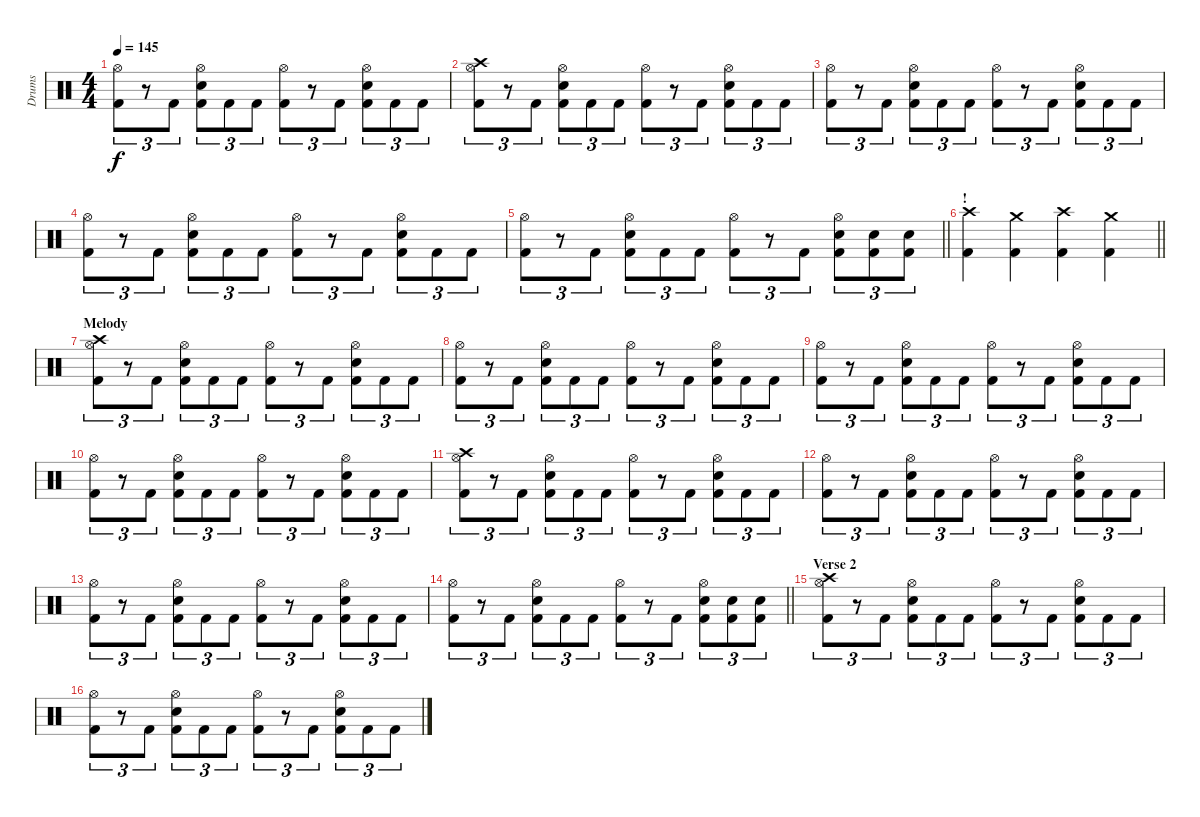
\track ("Drums" "Drums") {instrument percussion}
\staff {score}
\articulation defaults
\ts (4 4)
\tempo 145
\clef neutral
\ks c
("Hi-Hat (open)" "Kick (hit) 2").8{tu (3 2) dy f} r.8{tu (3 2)} "Kick (hit) 2".8{tu (3 2)} ("Hi-Hat (open)" "Snare (hit) 2" "Kick (hit) 2").8{tu (3 2)} "Kick (hit) 2".8{tu (3 2)} "Kick (hit) 2".8{tu (3 2)} ("Hi-Hat (open)" "Kick (hit) 2").8{tu (3 2)} r.8{tu (3 2)} "Kick (hit) 2".8{tu (3 2)} ("Hi-Hat (open)" "Snare (hit) 2" "Kick (hit) 2").8{tu (3 2)} "Kick (hit) 2".8{tu (3 2)} "Kick (hit) 2".8{tu (3 2)} |
("Crash high (hit)" "Hi-Hat (open)" "Kick (hit) 2").8{tu (3 2)} r.8{tu (3 2)} "Kick (hit) 2".8{tu (3 2)} ("Hi-Hat (open)" "Snare (hit) 2" "Kick (hit) 2").8{tu (3 2)} "Kick (hit) 2".8{tu (3 2)} "Kick (hit) 2".8{tu (3 2)} ("Hi-Hat (open)" "Kick (hit) 2").8{tu (3 2)} r.8{tu (3 2)} "Kick (hit) 2".8{tu (3 2)} ("Hi-Hat (open)" "Snare (hit) 2" "Kick (hit) 2").8{tu (3 2)} "Kick (hit) 2".8{tu (3 2)} "Kick (hit) 2".8{tu (3 2)} |
("Hi-Hat (open)" "Kick (hit) 2").8{tu (3 2)} r.8{tu (3 2)} "Kick (hit) 2".8{tu (3 2)} ("Hi-Hat (open)" "Snare (hit) 2" "Kick (hit) 2").8{tu (3 2)} "Kick (hit) 2".8{tu (3 2)} "Kick (hit) 2".8{tu (3 2)} ("Hi-Hat (open)" "Kick (hit) 2").8{tu (3 2)} r.8{tu (3 2)} "Kick (hit) 2".8{tu (3 2)} ("Hi-Hat (open)" "Snare (hit) 2" "Kick (hit) 2").8{tu (3 2)} "Kick (hit) 2".8{tu (3 2)} "Kick (hit) 2".8{tu (3 2)} |
("Hi-Hat (open)" "Kick (hit) 2").8{tu (3 2)} r.8{tu (3 2)} "Kick (hit) 2".8{tu (3 2)} ("Hi-Hat (open)" "Snare (hit) 2" "Kick (hit) 2").8{tu (3 2)} "Kick (hit) 2".8{tu (3 2)} "Kick (hit) 2".8{tu (3 2)} ("Hi-Hat (open)" "Kick (hit) 2").8{tu (3 2)} r.8{tu (3 2)} "Kick (hit) 2".8{tu (3 2)} ("Hi-Hat (open)" "Snare (hit) 2" "Kick (hit) 2").8{tu (3 2)} "Kick (hit) 2".8{tu (3 2)} "Kick (hit) 2".8{tu (3 2)} |
\barLineRight lightlight
("Hi-Hat (open)" "Kick (hit) 2").8{tu (3 2)} r.8{tu (3 2)} "Kick (hit) 2".8{tu (3 2)} ("Hi-Hat (open)" "Snare (hit) 2" "Kick (hit) 2").8{tu (3 2)} "Kick (hit) 2".8{tu (3 2)} "Kick (hit) 2".8{tu (3 2)} ("Hi-Hat (open)" "Kick (hit) 2").8{tu (3 2)} r.8{tu (3 2)} "Kick (hit) 2".8{tu (3 2)} ("Hi-Hat (open)" "Snare (hit) 2" "Kick (hit) 2").8{tu (3 2)} ("Snare (hit) 2" "Kick (hit) 2").8{tu (3 2)} ("Snare (hit) 2" "Kick (hit) 2").8{tu (3 2)} |
\section ("" "!")
\barLineRight lightlight
("Crash high (hit)" "Kick (hit) 2").4 ("Crash medium (hit)" "Kick (hit) 2").4 ("Crash high (hit)" "Kick (hit) 2").4 ("Crash medium (hit)" "Kick (hit) 2").4 |
\section ("" "Melody")
("Crash high (hit)" "Hi-Hat (open)" "Kick (hit) 2").8{tu (3 2)} r.8{tu (3 2)} "Kick (hit) 2".8{tu (3 2)} ("Hi-Hat (open)" "Snare (hit) 2" "Kick (hit) 2").8{tu (3 2)} "Kick (hit) 2".8{tu (3 2)} "Kick (hit) 2".8{tu (3 2)} ("Hi-Hat (open)" "Kick (hit) 2").8{tu (3 2)} r.8{tu (3 2)} "Kick (hit) 2".8{tu (3 2)} ("Hi-Hat (open)" "Snare (hit) 2" "Kick (hit) 2").8{tu (3 2)} "Kick (hit) 2".8{tu (3 2)} "Kick (hit) 2".8{tu (3 2)} |
("Hi-Hat (open)" "Kick (hit) 2").8{tu (3 2)} r.8{tu (3 2)} "Kick (hit) 2".8{tu (3 2)} ("Hi-Hat (open)" "Snare (hit) 2" "Kick (hit) 2").8{tu (3 2)} "Kick (hit) 2".8{tu (3 2)} "Kick (hit) 2".8{tu (3 2)} ("Hi-Hat (open)" "Kick (hit) 2").8{tu (3 2)} r.8{tu (3 2)} "Kick (hit) 2".8{tu (3 2)} ("Hi-Hat (open)" "Snare (hit) 2" "Kick (hit) 2").8{tu (3 2)} "Kick (hit) 2".8{tu (3 2)} "Kick (hit) 2".8{tu (3 2)} |
("Hi-Hat (open)" "Kick (hit) 2").8{tu (3 2)} r.8{tu (3 2)} "Kick (hit) 2".8{tu (3 2)} ("Hi-Hat (open)" "Snare (hit) 2" "Kick (hit) 2").8{tu (3 2)} "Kick (hit) 2".8{tu (3 2)} "Kick (hit) 2".8{tu (3 2)} ("Hi-Hat (open)" "Kick (hit) 2").8{tu (3 2)} r.8{tu (3 2)} "Kick (hit) 2".8{tu (3 2)} ("Hi-Hat (open)" "Snare (hit) 2" "Kick (hit) 2").8{tu (3 2)} "Kick (hit) 2".8{tu (3 2)} "Kick (hit) 2".8{tu (3 2)} |
("Hi-Hat (open)" "Kick (hit) 2").8{tu (3 2)} r.8{tu (3 2)} "Kick (hit) 2".8{tu (3 2)} ("Hi-Hat (open)" "Snare (hit) 2" "Kick (hit) 2").8{tu (3 2)} "Kick (hit) 2".8{tu (3 2)} "Kick (hit) 2".8{tu (3 2)} ("Hi-Hat (open)" "Kick (hit) 2").8{tu (3 2)} r.8{tu (3 2)} "Kick (hit) 2".8{tu (3 2)} ("Hi-Hat (open)" "Snare (hit) 2" "Kick (hit) 2").8{tu (3 2)} "Kick (hit) 2".8{tu (3 2)} "Kick (hit) 2".8{tu (3 2)} |
("Crash high (hit)" "Hi-Hat (open)" "Kick (hit) 2").8{tu (3 2)} r.8{tu (3 2)} "Kick (hit) 2".8{tu (3 2)} ("Hi-Hat (open)" "Snare (hit) 2" "Kick (hit) 2").8{tu (3 2)} "Kick (hit) 2".8{tu (3 2)} "Kick (hit) 2".8{tu (3 2)} ("Hi-Hat (open)" "Kick (hit) 2").8{tu (3 2)} r.8{tu (3 2)} "Kick (hit) 2".8{tu (3 2)} ("Hi-Hat (open)" "Snare (hit) 2" "Kick (hit) 2").8{tu (3 2)} "Kick (hit) 2".8{tu (3 2)} "Kick (hit) 2".8{tu (3 2)} |
("Hi-Hat (open)" "Kick (hit) 2").8{tu (3 2)} r.8{tu (3 2)} "Kick (hit) 2".8{tu (3 2)} ("Hi-Hat (open)" "Snare (hit) 2" "Kick (hit) 2").8{tu (3 2)} "Kick (hit) 2".8{tu (3 2)} "Kick (hit) 2".8{tu (3 2)} ("Hi-Hat (open)" "Kick (hit) 2").8{tu (3 2)} r.8{tu (3 2)} "Kick (hit) 2".8{tu (3 2)} ("Hi-Hat (open)" "Snare (hit) 2" "Kick (hit) 2").8{tu (3 2)} "Kick (hit) 2".8{tu (3 2)} "Kick (hit) 2".8{tu (3 2)} |
("Hi-Hat (open)" "Kick (hit) 2").8{tu (3 2)} r.8{tu (3 2)} "Kick (hit) 2".8{tu (3 2)} ("Hi-Hat (open)" "Snare (hit) 2" "Kick (hit) 2").8{tu (3 2)} "Kick (hit) 2".8{tu (3 2)} "Kick (hit) 2".8{tu (3 2)} ("Hi-Hat (open)" "Kick (hit) 2").8{tu (3 2)} r.8{tu (3 2)} "Kick (hit) 2".8{tu (3 2)} ("Hi-Hat (open)" "Snare (hit) 2" "Kick (hit) 2").8{tu (3 2)} "Kick (hit) 2".8{tu (3 2)} "Kick (hit) 2".8{tu (3 2)} |
\barLineRight lightlight
("Hi-Hat (open)" "Kick (hit) 2").8{tu (3 2)} r.8{tu (3 2)} "Kick (hit) 2".8{tu (3 2)} ("Hi-Hat (open)" "Snare (hit) 2" "Kick (hit) 2").8{tu (3 2)} "Kick (hit) 2".8{tu (3 2)} "Kick (hit) 2".8{tu (3 2)} ("Hi-Hat (open)" "Kick (hit) 2").8{tu (3 2)} r.8{tu (3 2)} "Kick (hit) 2".8{tu (3 2)} ("Hi-Hat (open)" "Snare (hit) 2" "Kick (hit) 2").8{tu (3 2)} ("Snare (hit) 2" "Kick (hit) 2").8{tu (3 2)} ("Snare (hit) 2" "Kick (hit) 2").8{tu (3 2)} |
\section ("" "Verse 2")
("Crash high (hit)" "Hi-Hat (open)" "Kick (hit) 2").8{tu (3 2)} r.8{tu (3 2)} "Kick (hit) 2".8{tu (3 2)} ("Hi-Hat (open)" "Snare (hit) 2" "Kick (hit) 2").8{tu (3 2)} "Kick (hit) 2".8{tu (3 2)} "Kick (hit) 2".8{tu (3 2)} ("Hi-Hat (open)" "Kick (hit) 2").8{tu (3 2)} r.8{tu (3 2)} "Kick (hit) 2".8{tu (3 2)} ("Hi-Hat (open)" "Snare (hit) 2" "Kick (hit) 2").8{tu (3 2)} "Kick (hit) 2".8{tu (3 2)} "Kick (hit) 2".8{tu (3 2)} |
("Hi-Hat (open)" "Kick (hit) 2").8{tu (3 2)} r.8{tu (3 2)} "Kick (hit) 2".8{tu (3 2)} ("Hi-Hat (open)" "Snare (hit) 2" "Kick (hit) 2").8{tu (3 2)} "Kick (hit) 2".8{tu (3 2)} "Kick (hit) 2".8{tu (3 2)} ("Hi-Hat (open)" "Kick (hit) 2").8{tu (3 2)} r.8{tu (3 2)} "Kick (hit) 2".8{tu (3 2)} ("Hi-Hat (open)" "Snare (hit) 2" "Kick (hit) 2").8{tu (3 2)} "Kick (hit) 2".8{tu (3 2)} "Kick (hit) 2".8{tu (3 2)}
